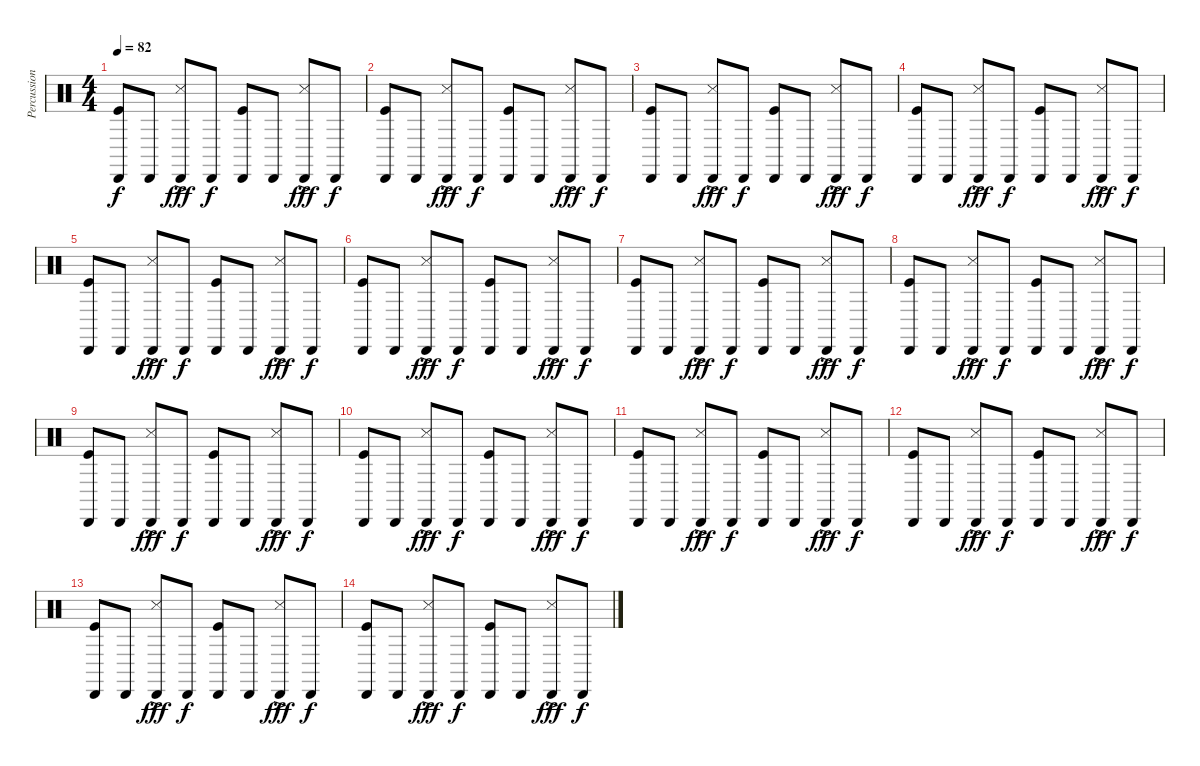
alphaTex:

\track ("Percussion" "Percussion") {instrument percussion}
\staff {score}
\articulation defaults
\ts (4 4)
\tempo 82
\clef neutral
\ks c
("Cabasa (hit)" "Kick (hit)").8{dy f} "Cabasa (hit)".8 ("Cabasa (hit)" "Snare (side stick) 3"{ac}).8{dy fff} "Cabasa (hit)".8{dy f} ("Cabasa (hit)" "Kick (hit)").8 "Cabasa (hit)".8 ("Cabasa (hit)" "Snare (side stick) 3"{ac}).8{dy fff} "Cabasa (hit)".8{dy f} |
("Cabasa (hit)" "Kick (hit)").8 "Cabasa (hit)".8 ("Cabasa (hit)" "Snare (side stick) 3"{ac}).8{dy fff} "Cabasa (hit)".8{dy f} ("Cabasa (hit)" "Kick (hit)").8 "Cabasa (hit)".8 ("Cabasa (hit)" "Snare (side stick) 3"{ac}).8{dy fff} "Cabasa (hit)".8{dy f} |
("Cabasa (hit)" "Kick (hit)").8 "Cabasa (hit)".8 ("Cabasa (hit)" "Snare (side stick) 3"{ac}).8{dy fff} "Cabasa (hit)".8{dy f} ("Cabasa (hit)" "Kick (hit)").8 "Cabasa (hit)".8 ("Cabasa (hit)" "Snare (side stick) 3"{ac}).8{dy fff} "Cabasa (hit)".8{dy f} |
("Cabasa (hit)" "Kick (hit)").8 "Cabasa (hit)".8 ("Cabasa (hit)" "Snare (side stick) 3"{ac}).8{dy fff} "Cabasa (hit)".8{dy f} ("Cabasa (hit)" "Kick (hit)").8 "Cabasa (hit)".8 ("Cabasa (hit)" "Snare (side stick) 3"{ac}).8{dy fff} "Cabasa (hit)".8{dy f} |
("Cabasa (hit)" "Kick (hit)").8 "Cabasa (hit)".8 ("Cabasa (hit)" "Snare (side stick) 3"{ac}).8{dy fff} "Cabasa (hit)".8{dy f} ("Cabasa (hit)" "Kick (hit)").8 "Cabasa (hit)".8 ("Cabasa (hit)" "Snare (side stick) 3"{ac}).8{dy fff} "Cabasa (hit)".8{dy f} |
("Cabasa (hit)" "Kick (hit)").8 "Cabasa (hit)".8 ("Cabasa (hit)" "Snare (side stick) 3"{ac}).8{dy fff} "Cabasa (hit)".8{dy f} ("Cabasa (hit)" "Kick (hit)").8 "Cabasa (hit)".8 ("Cabasa (hit)" "Snare (side stick) 3"{ac}).8{dy fff} "Cabasa (hit)".8{dy f} |
("Cabasa (hit)" "Kick (hit)").8 "Cabasa (hit)".8 ("Cabasa (hit)" "Snare (side stick) 3"{ac}).8{dy fff} "Cabasa (hit)".8{dy f} ("Cabasa (hit)" "Kick (hit)").8 "Cabasa (hit)".8 ("Cabasa (hit)" "Snare (side stick) 3"{ac}).8{dy fff} "Cabasa (hit)".8{dy f} |
("Cabasa (hit)" "Kick (hit)").8 "Cabasa (hit)".8 ("Cabasa (hit)" "Snare (side stick) 3"{ac}).8{dy fff} "Cabasa (hit)".8{dy f} ("Cabasa (hit)" "Kick (hit)").8 "Cabasa (hit)".8 ("Cabasa (hit)" "Snare (side stick) 3"{ac}).8{dy fff} "Cabasa (hit)".8{dy f} |
("Cabasa (hit)" "Kick (hit)").8 "Cabasa (hit)".8 ("Cabasa (hit)" "Snare (side stick) 3"{ac}).8{dy fff} "Cabasa (hit)".8{dy f} ("Cabasa (hit)" "Kick (hit)").8 "Cabasa (hit)".8 ("Cabasa (hit)" "Snare (side stick) 3"{ac}).8{dy fff} "Cabasa (hit)".8{dy f} |
("Cabasa (hit)" "Kick (hit)").8 "Cabasa (hit)".8 ("Cabasa (hit)" "Snare (side stick) 3"{ac}).8{dy fff} "Cabasa (hit)".8{dy f} ("Cabasa (hit)" "Kick (hit)").8 "Cabasa (hit)".8 ("Cabasa (hit)" "Snare (side stick) 3"{ac}).8{dy fff} "Cabasa (hit)".8{dy f} |
("Cabasa (hit)" "Kick (hit)").8 "Cabasa (hit)".8 ("Cabasa (hit)" "Snare (side stick) 3"{ac}).8{dy fff} "Cabasa (hit)".8{dy f} ("Cabasa (hit)" "Kick (hit)").8 "Cabasa (hit)".8 ("Cabasa (hit)" "Snare (side stick) 3"{ac}).8{dy fff} "Cabasa (hit)".8{dy f} |
("Cabasa (hit)" "Kick (hit)").8 "Cabasa (hit)".8 ("Cabasa (hit)" "Snare (side stick) 3"{ac}).8{dy fff} "Cabasa (hit)".8{dy f} ("Cabasa (hit)" "Kick (hit)").8 "Cabasa (hit)".8 ("Cabasa (hit)" "Snare (side stick) 3"{ac}).8{dy fff} "Cabasa (hit)".8{dy f} |
("Cabasa (hit)" "Kick (hit)").8 "Cabasa (hit)".8 ("Cabasa (hit)" "Snare (side stick) 3"{ac}).8{dy fff} "Cabasa (hit)".8{dy f} ("Cabasa (hit)" "Kick (hit)").8 "Cabasa (hit)".8 ("Cabasa (hit)" "Snare (side stick) 3"{ac}).8{dy fff} "Cabasa (hit)".8{dy f} |
("Cabasa (hit)" "Kick (hit)").8 "Cabasa (hit)".8 ("Cabasa (hit)" "Snare (side stick) 3"{ac}).8{dy fff} "Cabasa (hit)".8{dy f} ("Cabasa (hit)" "Kick (hit)").8 "Cabasa (hit)".8 ("Cabasa (hit)" "Snare (side stick) 3"{ac}).8{dy fff} "Cabasa (hit)".8{dy f}
